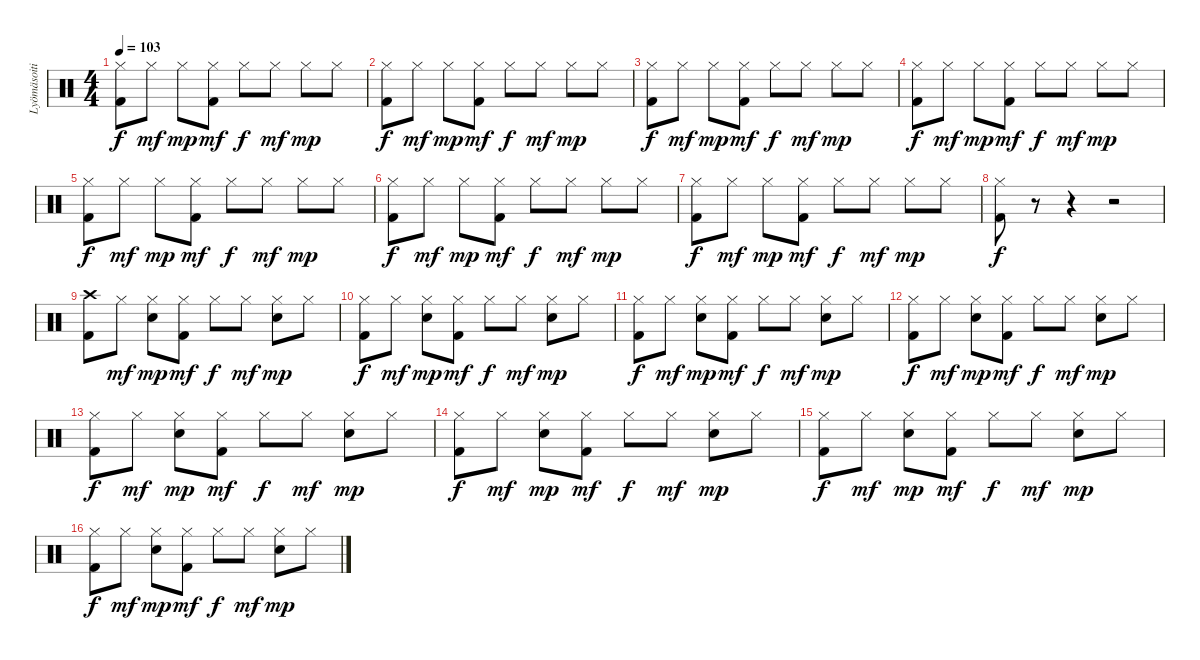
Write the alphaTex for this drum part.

\track ("Lyömäsoitin" "Lyömäsoiti") {instrument percussion}
\staff {score}
\articulation defaults
\ts (4 4)
\tempo 103
\clef neutral
\ks c
("Kick (hit) 2" "Hi-Hat (closed)").8{dy f} "Hi-Hat (closed)".8{dy mf} "Hi-Hat (closed)".8{dy mp} ("Kick (hit) 2" "Hi-Hat (closed)").8{dy mf} "Hi-Hat (closed)".8{dy f} "Hi-Hat (closed)".8{dy mf} "Hi-Hat (closed)".8{dy mp} "Hi-Hat (closed)".8 |
("Kick (hit) 2" "Hi-Hat (closed)").8{dy f} "Hi-Hat (closed)".8{dy mf} "Hi-Hat (closed)".8{dy mp} ("Kick (hit) 2" "Hi-Hat (closed)").8{dy mf} "Hi-Hat (closed)".8{dy f} "Hi-Hat (closed)".8{dy mf} "Hi-Hat (closed)".8{dy mp} "Hi-Hat (closed)".8 |
("Kick (hit) 2" "Hi-Hat (closed)").8{dy f} "Hi-Hat (closed)".8{dy mf} "Hi-Hat (closed)".8{dy mp} ("Kick (hit) 2" "Hi-Hat (closed)").8{dy mf} "Hi-Hat (closed)".8{dy f} "Hi-Hat (closed)".8{dy mf} "Hi-Hat (closed)".8{dy mp} "Hi-Hat (closed)".8 |
("Kick (hit) 2" "Hi-Hat (closed)").8{dy f} "Hi-Hat (closed)".8{dy mf} "Hi-Hat (closed)".8{dy mp} ("Kick (hit) 2" "Hi-Hat (closed)").8{dy mf} "Hi-Hat (closed)".8{dy f} "Hi-Hat (closed)".8{dy mf} "Hi-Hat (closed)".8{dy mp} "Hi-Hat (closed)".8 |
("Kick (hit) 2" "Hi-Hat (closed)").8{dy f} "Hi-Hat (closed)".8{dy mf} "Hi-Hat (closed)".8{dy mp} ("Kick (hit) 2" "Hi-Hat (closed)").8{dy mf} "Hi-Hat (closed)".8{dy f} "Hi-Hat (closed)".8{dy mf} "Hi-Hat (closed)".8{dy mp} "Hi-Hat (closed)".8 |
("Kick (hit) 2" "Hi-Hat (closed)").8{dy f} "Hi-Hat (closed)".8{dy mf} "Hi-Hat (closed)".8{dy mp} ("Kick (hit) 2" "Hi-Hat (closed)").8{dy mf} "Hi-Hat (closed)".8{dy f} "Hi-Hat (closed)".8{dy mf} "Hi-Hat (closed)".8{dy mp} "Hi-Hat (closed)".8 |
("Kick (hit) 2" "Hi-Hat (closed)").8{dy f} "Hi-Hat (closed)".8{dy mf} "Hi-Hat (closed)".8{dy mp} ("Kick (hit) 2" "Hi-Hat (closed)").8{dy mf} "Hi-Hat (closed)".8{dy f} "Hi-Hat (closed)".8{dy mf} "Hi-Hat (closed)".8{dy mp} "Hi-Hat (closed)".8 |
("Kick (hit) 2" "Hi-Hat (closed)").8{dy f} r.8 r.4 r.2 |
("Kick (hit) 2" "Crash high (hit)").8 "Hi-Hat (closed)".8{dy mf} ("Hi-Hat (closed)" "Snare (hit) 2").8{dy mp} ("Kick (hit) 2" "Hi-Hat (closed)").8{dy mf} "Hi-Hat (closed)".8{dy f} "Hi-Hat (closed)".8{dy mf} ("Hi-Hat (closed)" "Snare (hit) 2").8{dy mp} "Hi-Hat (closed)".8 |
("Kick (hit) 2" "Hi-Hat (closed)").8{dy f} "Hi-Hat (closed)".8{dy mf} ("Hi-Hat (closed)" "Snare (hit) 2").8{dy mp} ("Kick (hit) 2" "Hi-Hat (closed)").8{dy mf} "Hi-Hat (closed)".8{dy f} "Hi-Hat (closed)".8{dy mf} ("Hi-Hat (closed)" "Snare (hit) 2").8{dy mp} "Hi-Hat (closed)".8 |
("Kick (hit) 2" "Hi-Hat (closed)").8{dy f} "Hi-Hat (closed)".8{dy mf} ("Hi-Hat (closed)" "Snare (hit) 2").8{dy mp} ("Kick (hit) 2" "Hi-Hat (closed)").8{dy mf} "Hi-Hat (closed)".8{dy f} "Hi-Hat (closed)".8{dy mf} ("Hi-Hat (closed)" "Snare (hit) 2").8{dy mp} "Hi-Hat (closed)".8 |
("Kick (hit) 2" "Hi-Hat (closed)").8{dy f} "Hi-Hat (closed)".8{dy mf} ("Hi-Hat (closed)" "Snare (hit) 2").8{dy mp} ("Kick (hit) 2" "Hi-Hat (closed)").8{dy mf} "Hi-Hat (closed)".8{dy f} "Hi-Hat (closed)".8{dy mf} ("Hi-Hat (closed)" "Snare (hit) 2").8{dy mp} "Hi-Hat (closed)".8 |
("Kick (hit) 2" "Hi-Hat (closed)").8{dy f} "Hi-Hat (closed)".8{dy mf} ("Hi-Hat (closed)" "Snare (hit) 2").8{dy mp} ("Kick (hit) 2" "Hi-Hat (closed)").8{dy mf} "Hi-Hat (closed)".8{dy f} "Hi-Hat (closed)".8{dy mf} ("Hi-Hat (closed)" "Snare (hit) 2").8{dy mp} "Hi-Hat (closed)".8 |
("Kick (hit) 2" "Hi-Hat (closed)").8{dy f} "Hi-Hat (closed)".8{dy mf} ("Hi-Hat (closed)" "Snare (hit) 2").8{dy mp} ("Kick (hit) 2" "Hi-Hat (closed)").8{dy mf} "Hi-Hat (closed)".8{dy f} "Hi-Hat (closed)".8{dy mf} ("Hi-Hat (closed)" "Snare (hit) 2").8{dy mp} "Hi-Hat (closed)".8 |
("Kick (hit) 2" "Hi-Hat (closed)").8{dy f} "Hi-Hat (closed)".8{dy mf} ("Hi-Hat (closed)" "Snare (hit) 2").8{dy mp} ("Kick (hit) 2" "Hi-Hat (closed)").8{dy mf} "Hi-Hat (closed)".8{dy f} "Hi-Hat (closed)".8{dy mf} ("Hi-Hat (closed)" "Snare (hit) 2").8{dy mp} "Hi-Hat (closed)".8 |
("Kick (hit) 2" "Hi-Hat (closed)").8{dy f} "Hi-Hat (closed)".8{dy mf} ("Hi-Hat (closed)" "Snare (hit) 2").8{dy mp} ("Kick (hit) 2" "Hi-Hat (closed)").8{dy mf} "Hi-Hat (closed)".8{dy f} "Hi-Hat (closed)".8{dy mf} ("Hi-Hat (closed)" "Snare (hit) 2").8{dy mp} "Hi-Hat (closed)".8
